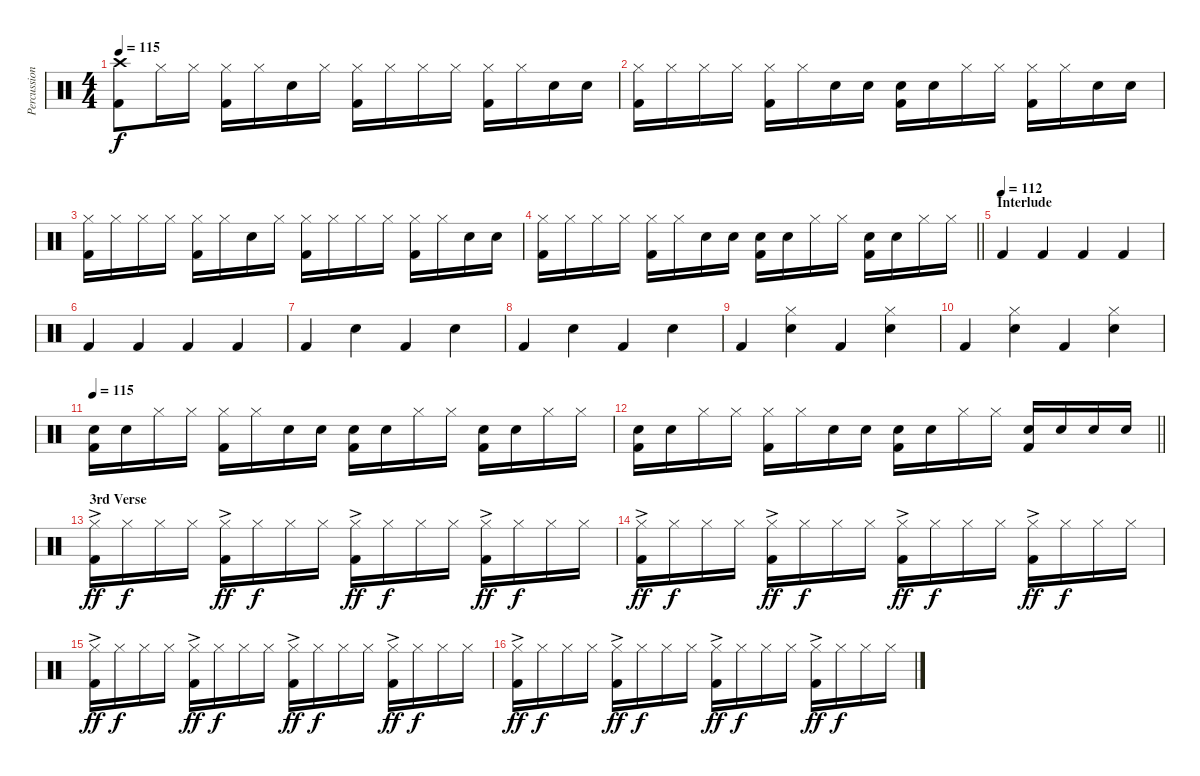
\track ("Percussion" "Percussion") {instrument percussion}
\staff {score}
\articulation defaults
\ts (4 4)
\tempo 115
\clef neutral
\ks c
("Crash high (hit)" "Kick (hit) 2").8{dy f} "Hi-Hat (closed)".16 "Hi-Hat (closed)".16 ("Hi-Hat (closed)" "Kick (hit) 2").16 "Hi-Hat (closed)".16 "Snare (hit) 2".16 "Hi-Hat (closed)".16 ("Hi-Hat (closed)" "Kick (hit) 2").16 "Hi-Hat (closed)".16 "Hi-Hat (closed)".16 "Hi-Hat (closed)".16 ("Hi-Hat (closed)" "Kick (hit) 2").16 "Hi-Hat (closed)".16 "Snare (hit) 2".16 "Snare (hit) 2".16 |
("Hi-Hat (closed)" "Kick (hit) 2").16 "Hi-Hat (closed)".16 "Hi-Hat (closed)".16 "Hi-Hat (closed)".16 ("Hi-Hat (closed)" "Kick (hit) 2").16 "Hi-Hat (closed)".16 "Snare (hit) 2".16 "Snare (hit) 2".16 ("Snare (hit) 2" "Kick (hit) 2").16 "Snare (hit) 2".16 "Hi-Hat (closed)".16 "Hi-Hat (closed)".16 ("Hi-Hat (closed)" "Kick (hit) 2").16 "Hi-Hat (closed)".16 "Snare (hit) 2".16 "Snare (hit) 2".16 |
("Hi-Hat (closed)" "Kick (hit) 2").16 "Hi-Hat (closed)".16 "Hi-Hat (closed)".16 "Hi-Hat (closed)".16 ("Hi-Hat (closed)" "Kick (hit) 2").16 "Hi-Hat (closed)".16 "Snare (hit) 2".16 "Hi-Hat (closed)".16 ("Hi-Hat (closed)" "Kick (hit) 2").16 "Hi-Hat (closed)".16 "Hi-Hat (closed)".16 "Hi-Hat (closed)".16 ("Hi-Hat (closed)" "Kick (hit) 2").16 "Hi-Hat (closed)".16 "Snare (hit) 2".16 "Snare (hit) 2".16 |
\barLineRight lightlight
("Hi-Hat (closed)" "Kick (hit) 2").16 "Hi-Hat (closed)".16 "Hi-Hat (closed)".16 "Hi-Hat (closed)".16 ("Hi-Hat (closed)" "Kick (hit) 2").16 "Hi-Hat (closed)".16 "Snare (hit) 2".16 "Snare (hit) 2".16 ("Snare (hit) 2" "Kick (hit) 2").16 "Snare (hit) 2".16 "Hi-Hat (closed)".16 "Hi-Hat (closed)".16 ("Snare (hit) 2" "Kick (hit) 2").16 "Snare (hit) 2".16 "Hi-Hat (closed)".16 "Hi-Hat (closed)".16 |
\section ("" "Interlude")
\tempo (112)
"Kick (hit) 2".4 "Kick (hit) 2".4 "Kick (hit) 2".4 "Kick (hit) 2".4 |
"Kick (hit) 2".4 "Kick (hit) 2".4 "Kick (hit) 2".4 "Kick (hit) 2".4 |
"Kick (hit) 2".4 "Snare (hit) 2".4 "Kick (hit) 2".4 "Snare (hit) 2".4 |
"Kick (hit) 2".4 "Snare (hit) 2".4 "Kick (hit) 2".4 "Snare (hit) 2".4 |
"Kick (hit) 2".4 ("Hi-Hat (closed)" "Snare (hit) 2").4 "Kick (hit) 2".4 ("Hi-Hat (closed)" "Snare (hit) 2").4 |
"Kick (hit) 2".4 ("Hi-Hat (closed)" "Snare (hit) 2").4 "Kick (hit) 2".4 ("Hi-Hat (closed)" "Snare (hit) 2").4 |
\tempo 115
("Snare (hit) 2" "Kick (hit) 2").16 "Snare (hit) 2".16 "Hi-Hat (closed)".16 "Hi-Hat (closed)".16 ("Hi-Hat (closed)" "Kick (hit) 2").16 "Hi-Hat (closed)".16 "Snare (hit) 2".16 "Snare (hit) 2".16 ("Snare (hit) 2" "Kick (hit) 2").16 "Snare (hit) 2".16 "Hi-Hat (closed)".16 "Hi-Hat (closed)".16 ("Snare (hit) 2" "Kick (hit) 2").16 "Snare (hit) 2".16 "Hi-Hat (closed)".16 "Hi-Hat (closed)".16 |
\barLineRight lightlight
("Snare (hit) 2" "Kick (hit) 2").16 "Snare (hit) 2".16 "Hi-Hat (closed)".16 "Hi-Hat (closed)".16 ("Hi-Hat (closed)" "Kick (hit) 2").16 "Hi-Hat (closed)".16 "Snare (hit) 2".16 "Snare (hit) 2".16 ("Snare (hit) 2" "Kick (hit) 2").16 "Snare (hit) 2".16 "Hi-Hat (closed)".16 "Hi-Hat (closed)".16 ("Snare (hit) 2" "Kick (hit) 2").16 "Snare (hit) 2".16 "Snare (hit) 2".16 "Snare (hit) 2".16 |
\section ("" "3rd Verse")
("Hi-Hat (closed)"{ac} "Kick (hit) 2").16{dy ff} "Hi-Hat (closed)".16{dy f} "Hi-Hat (closed)".16 "Hi-Hat (closed)".16 ("Hi-Hat (closed)"{ac} "Kick (hit) 2").16{dy ff} "Hi-Hat (closed)".16{dy f} "Hi-Hat (closed)".16 "Hi-Hat (closed)".16 ("Hi-Hat (closed)"{ac} "Kick (hit) 2").16{dy ff} "Hi-Hat (closed)".16{dy f} "Hi-Hat (closed)".16 "Hi-Hat (closed)".16 ("Hi-Hat (closed)"{ac} "Kick (hit) 2").16{dy ff} "Hi-Hat (closed)".16{dy f} "Hi-Hat (closed)".16 "Hi-Hat (closed)".16 |
("Hi-Hat (closed)"{ac} "Kick (hit) 2").16{dy ff} "Hi-Hat (closed)".16{dy f} "Hi-Hat (closed)".16 "Hi-Hat (closed)".16 ("Hi-Hat (closed)"{ac} "Kick (hit) 2").16{dy ff} "Hi-Hat (closed)".16{dy f} "Hi-Hat (closed)".16 "Hi-Hat (closed)".16 ("Hi-Hat (closed)"{ac} "Kick (hit) 2").16{dy ff} "Hi-Hat (closed)".16{dy f} "Hi-Hat (closed)".16 "Hi-Hat (closed)".16 ("Hi-Hat (closed)"{ac} "Kick (hit) 2").16{dy ff} "Hi-Hat (closed)".16{dy f} "Hi-Hat (closed)".16 "Hi-Hat (closed)".16 |
("Hi-Hat (closed)"{ac} "Kick (hit) 2").16{dy ff} "Hi-Hat (closed)".16{dy f} "Hi-Hat (closed)".16 "Hi-Hat (closed)".16 ("Hi-Hat (closed)"{ac} "Kick (hit) 2").16{dy ff} "Hi-Hat (closed)".16{dy f} "Hi-Hat (closed)".16 "Hi-Hat (closed)".16 ("Hi-Hat (closed)"{ac} "Kick (hit) 2").16{dy ff} "Hi-Hat (closed)".16{dy f} "Hi-Hat (closed)".16 "Hi-Hat (closed)".16 ("Hi-Hat (closed)"{ac} "Kick (hit) 2").16{dy ff} "Hi-Hat (closed)".16{dy f} "Hi-Hat (closed)".16 "Hi-Hat (closed)".16 |
("Hi-Hat (closed)"{ac} "Kick (hit) 2").16{dy ff} "Hi-Hat (closed)".16{dy f} "Hi-Hat (closed)".16 "Hi-Hat (closed)".16 ("Hi-Hat (closed)"{ac} "Kick (hit) 2").16{dy ff} "Hi-Hat (closed)".16{dy f} "Hi-Hat (closed)".16 "Hi-Hat (closed)".16 ("Hi-Hat (closed)"{ac} "Kick (hit) 2").16{dy ff} "Hi-Hat (closed)".16{dy f} "Hi-Hat (closed)".16 "Hi-Hat (closed)".16 ("Hi-Hat (closed)"{ac} "Kick (hit) 2").16{dy ff} "Hi-Hat (closed)".16{dy f} "Hi-Hat (closed)".16 "Hi-Hat (closed)".16
